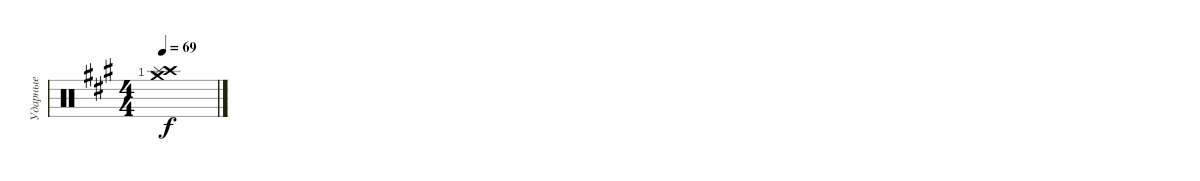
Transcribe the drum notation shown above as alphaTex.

\track ("Ударные" "Ударные") {instrument percussion}
\staff {score}
\articulation defaults
\ts (4 4)
\tempo 69
\clef neutral
\ks a
("Crash high (hit)"{t} "Crash medium (hit)"{t} "Splash (hit)"{t}).1{dy f}
